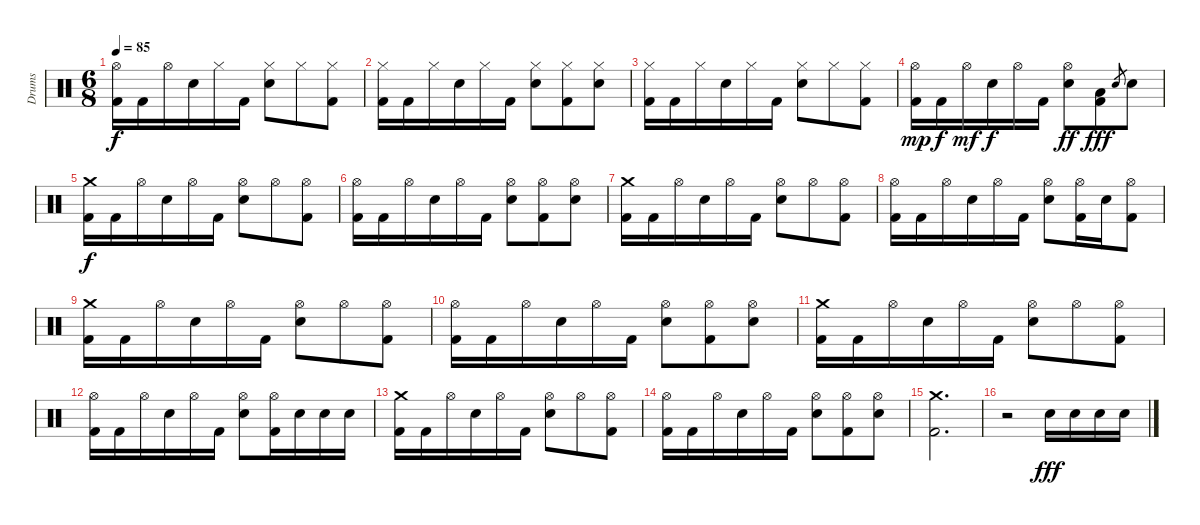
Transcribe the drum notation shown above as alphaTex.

\track ("Drums" "Drums") {instrument percussion}
\staff {score}
\articulation defaults
\ts (6 8)
\tempo 85
\clef neutral
\ks c
("Hi-Hat (open)" "Kick (hit) 2").16{dy f} "Kick (hit) 2".16 "Hi-Hat (open)".16 "Electric Snare (hit)".16 "Hi-Hat (closed)".16 "Kick (hit) 2".16 ("Hi-Hat (closed)" "Electric Snare (hit)").8 "Hi-Hat (closed)".8 ("Hi-Hat (closed)" "Kick (hit) 2").8 |
("Hi-Hat (closed)" "Kick (hit) 2").16 "Kick (hit) 2".16 "Hi-Hat (closed)".16 "Electric Snare (hit)".16 "Hi-Hat (closed)".16 "Kick (hit) 2".16 ("Hi-Hat (closed)" "Electric Snare (hit)").8 ("Hi-Hat (closed)" "Kick (hit) 2").8 ("Hi-Hat (closed)" "Electric Snare (hit)").8 |
("Hi-Hat (closed)" "Kick (hit) 2").16 "Kick (hit) 2".16 "Hi-Hat (closed)".16 "Electric Snare (hit)".16 "Hi-Hat (closed)".16 "Kick (hit) 2".16 ("Hi-Hat (closed)" "Electric Snare (hit)").8 "Hi-Hat (closed)".8 ("Hi-Hat (closed)" "Kick (hit) 2").8 |
("Hi-Hat (open)" "Kick (hit) 2").16{dy mp} "Kick (hit) 2".16{dy f} "Hi-Hat (open)".16{dy mf} "Electric Snare (hit)".16{dy f} "Hi-Hat (open)".16 "Kick (hit) 2".16 ("Hi-Hat (open)" "Electric Snare (hit)").8{dy ff} ("Low Tom (hit)" "Kick (hit) 2").8{dy fff} "Electric Snare (hit)".8{gr} "Electric Snare (hit)".8 |
("Crash medium (hit)" "Kick (hit) 2").16{dy f} "Kick (hit) 2".16 "Hi-Hat (open)".16 "Electric Snare (hit)".16 "Hi-Hat (open)".16 "Kick (hit) 2".16 ("Hi-Hat (open)" "Electric Snare (hit)").8 "Hi-Hat (open)".8 ("Hi-Hat (open)" "Kick (hit) 2").8 |
("Hi-Hat (open)" "Kick (hit) 2").16 "Kick (hit) 2".16 "Hi-Hat (open)".16 "Electric Snare (hit)".16 "Hi-Hat (open)".16 "Kick (hit) 2".16 ("Hi-Hat (open)" "Electric Snare (hit)").8 ("Hi-Hat (open)" "Kick (hit) 2").8 ("Hi-Hat (open)" "Electric Snare (hit)").8 |
("Crash medium (hit)" "Kick (hit) 2").16 "Kick (hit) 2".16 "Hi-Hat (open)".16 "Electric Snare (hit)".16 "Hi-Hat (open)".16 "Kick (hit) 2".16 ("Hi-Hat (open)" "Electric Snare (hit)").8 "Hi-Hat (open)".8 ("Hi-Hat (open)" "Kick (hit) 2").8 |
("Hi-Hat (open)" "Kick (hit) 2").16 "Kick (hit) 2".16 "Hi-Hat (open)".16 "Electric Snare (hit)".16 "Hi-Hat (open)".16 "Kick (hit) 2".16 ("Hi-Hat (open)" "Electric Snare (hit)").8 ("Hi-Hat (open)" "Kick (hit) 2").16 "Electric Snare (hit)".16 ("Hi-Hat (open)" "Kick (hit) 2").8 |
("Crash medium (hit)" "Kick (hit) 2").16 "Kick (hit) 2".16 "Hi-Hat (open)".16 "Electric Snare (hit)".16 "Hi-Hat (open)".16 "Kick (hit) 2".16 ("Hi-Hat (open)" "Electric Snare (hit)").8 "Hi-Hat (open)".8 ("Hi-Hat (open)" "Kick (hit) 2").8 |
("Hi-Hat (open)" "Kick (hit) 2").16 "Kick (hit) 2".16 "Hi-Hat (open)".16 "Electric Snare (hit)".16 "Hi-Hat (open)".16 "Kick (hit) 2".16 ("Hi-Hat (open)" "Electric Snare (hit)").8 ("Hi-Hat (open)" "Kick (hit) 2").8 ("Hi-Hat (open)" "Electric Snare (hit)").8 |
("Crash medium (hit)" "Kick (hit) 2").16 "Kick (hit) 2".16 "Hi-Hat (open)".16 "Electric Snare (hit)".16 "Hi-Hat (open)".16 "Kick (hit) 2".16 ("Hi-Hat (open)" "Electric Snare (hit)").8 "Hi-Hat (open)".8 ("Hi-Hat (open)" "Kick (hit) 2").8 |
("Hi-Hat (open)" "Kick (hit) 2").16 "Kick (hit) 2".16 "Hi-Hat (open)".16 "Electric Snare (hit)".16 "Hi-Hat (open)".16 "Kick (hit) 2".16 ("Hi-Hat (open)" "Electric Snare (hit)").8 ("Hi-Hat (open)" "Kick (hit) 2").16 "Electric Snare (hit)".16 "Electric Snare (hit)".16 "Electric Snare (hit)".16 |
("Crash medium (hit)" "Kick (hit) 2").16 "Kick (hit) 2".16 "Hi-Hat (open)".16 "Electric Snare (hit)".16 "Hi-Hat (open)".16 "Kick (hit) 2".16 ("Hi-Hat (open)" "Electric Snare (hit)").8 "Hi-Hat (open)".8 ("Hi-Hat (open)" "Kick (hit) 2").8 |
("Hi-Hat (open)" "Kick (hit) 2").16 "Kick (hit) 2".16 "Hi-Hat (open)".16 "Electric Snare (hit)".16 "Hi-Hat (open)".16 "Kick (hit) 2".16 ("Hi-Hat (open)" "Electric Snare (hit)").8 ("Hi-Hat (open)" "Kick (hit) 2").8 ("Hi-Hat (open)" "Electric Snare (hit)").8 |
("Crash medium (hit)" "Kick (hit) 2").2{d} |
r.2 "Electric Snare (hit)".16{dy fff} "Electric Snare (hit)".16 "Electric Snare (hit)".16 "Electric Snare (hit)".16
